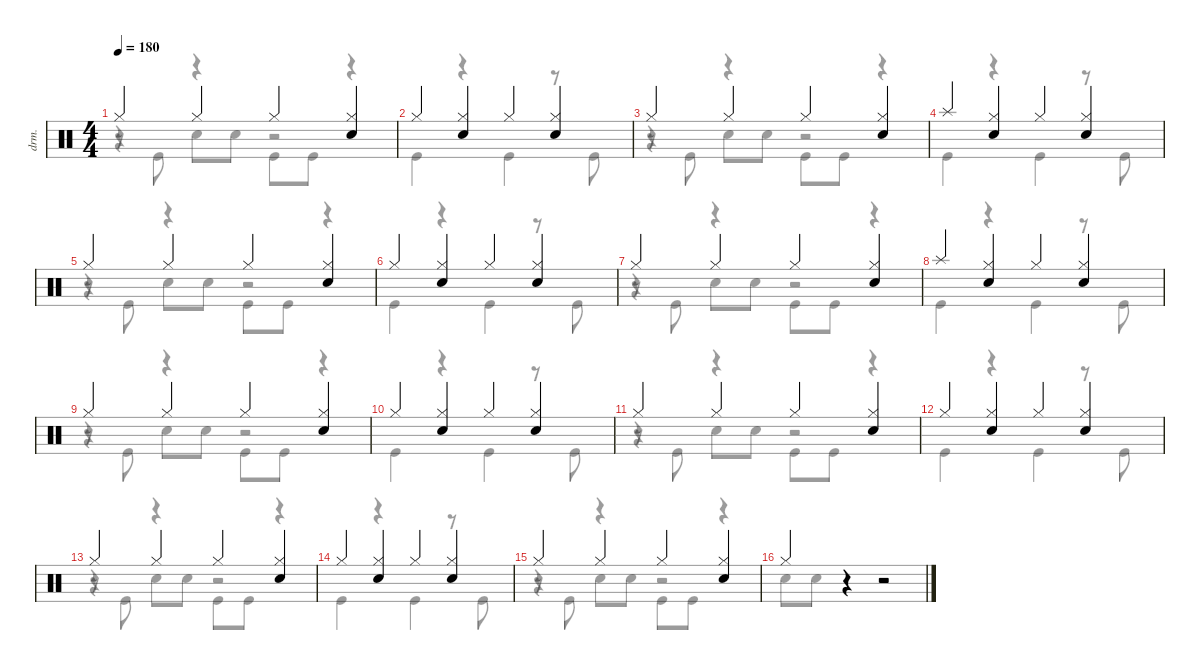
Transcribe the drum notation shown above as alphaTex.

\defaultSystemsLayout 4
\hideDynamics
\bracketExtendMode nobrackets
\otherSystemsTrackNameOrientation horizontal
\track ("Drumkit" "drm.") {instrument percussion}
\staff {score}
\articulation defaults
\voice
\ts (4 4)
\tempo 180
\clef neutral
\ks c "Hi-Hat (closed)".4{dy mf} "Hi-Hat (closed)".4 "Hi-Hat (closed)".4
("Hi-Hat (closed)" "Snare (hit) 2").4 |
"Hi-Hat (closed)".4 ("Hi-Hat (closed)" "Snare (hit) 2").4 "Hi-Hat (closed)".4 ("Hi-Hat (closed)" "Snare (hit) 2").4 |
"Hi-Hat (closed)".4 "Hi-Hat (closed)".4 "Hi-Hat (closed)".4 ("Hi-Hat (closed)" "Snare (hit) 2").4 |
"Splash (hit)".4 ("Hi-Hat (closed)" "Snare (hit) 2").4 "Hi-Hat (closed)".4 ("Hi-Hat (closed)" "Snare (hit) 2").4 |
"Hi-Hat (closed)".4 "Hi-Hat (closed)".4 "Hi-Hat (closed)".4 ("Hi-Hat (closed)" "Snare (hit) 2").4 |
"Hi-Hat (closed)".4 ("Hi-Hat (closed)" "Snare (hit) 2").4 "Hi-Hat (closed)".4 ("Hi-Hat (closed)" "Snare (hit) 2").4 |
"Hi-Hat (closed)".4 "Hi-Hat (closed)".4 "Hi-Hat (closed)".4 ("Hi-Hat (closed)" "Snare (hit) 2").4 |
"Splash (hit)".4 ("Hi-Hat (closed)" "Snare (hit) 2").4 "Hi-Hat (closed)".4 ("Hi-Hat (closed)" "Snare (hit) 2").4 |
"Hi-Hat (closed)".4 "Hi-Hat (closed)".4 "Hi-Hat (closed)".4 ("Hi-Hat (closed)" "Snare (hit) 2").4 |
"Hi-Hat (closed)".4 ("Hi-Hat (closed)" "Snare (hit) 2").4 "Hi-Hat (closed)".4 ("Hi-Hat (closed)" "Snare (hit) 2").4 |
"Hi-Hat (closed)".4 "Hi-Hat (closed)".4 "Hi-Hat (closed)".4 ("Hi-Hat (closed)" "Snare (hit) 2").4 |
"Hi-Hat (closed)".4 ("Hi-Hat (closed)" "Snare (hit) 2").4 "Hi-Hat (closed)".4 ("Hi-Hat (closed)" "Snare (hit) 2").4 |
"Hi-Hat (closed)".4 "Hi-Hat (closed)".4 "Hi-Hat (closed)".4 ("Hi-Hat (closed)" "Snare (hit) 2").4 |
"Hi-Hat (closed)".4 ("Hi-Hat (closed)" "Snare (hit) 2").4 "Hi-Hat (closed)".4 ("Hi-Hat (closed)" "Snare (hit) 2").4 |
"Hi-Hat (closed)".4 "Hi-Hat (closed)".4 "Hi-Hat (closed)".4 ("Hi-Hat (closed)" "Snare (hit) 2").4 |
"Hi-Hat (closed)".4 r.4 r.2
\voice
\clef neutral
\ottava regular
\simile none
\ks c
r.8{dy mf} "Kick (hit)".8 r.4 "Kick (hit)".8 "Kick (hit)".8 r.4 |
"Kick (hit)".4 r.4 "Kick (hit)".4 r.8 "Kick (hit)".8 |
r.8 "Kick (hit)".8 r.4 "Kick (hit)".8 "Kick (hit)".8 r.4 |
"Kick (hit)".4 r.4 "Kick (hit)".4 r.8 "Kick (hit)".8 |
r.8 "Kick (hit)".8 r.4 "Kick (hit)".8 "Kick (hit)".8 r.4 |
"Kick (hit)".4 r.4 "Kick (hit)".4 r.8 "Kick (hit)".8 |
r.8 "Kick (hit)".8 r.4 "Kick (hit)".8 "Kick (hit)".8 r.4 |
"Kick (hit)".4 r.4 "Kick (hit)".4 r.8 "Kick (hit)".8 |
r.8 "Kick (hit)".8 r.4 "Kick (hit)".8 "Kick (hit)".8 r.4 |
"Kick (hit)".4 r.4 "Kick (hit)".4 r.8 "Kick (hit)".8 |
r.8 "Kick (hit)".8 r.4 "Kick (hit)".8 "Kick (hit)".8 r.4 |
"Kick (hit)".4 r.4 "Kick (hit)".4 r.8 "Kick (hit)".8 |
r.8 "Kick (hit)".8 r.4 "Kick (hit)".8 "Kick (hit)".8 r.4 |
"Kick (hit)".4 r.4 "Kick (hit)".4 r.8 "Kick (hit)".8 |
r.8 "Kick (hit)".8 r.4 "Kick (hit)".8 "Kick (hit)".8 r.4 |
\voice
\clef neutral
\ottava regular
\simile none
\ks c
r.4{dy mf} "Snare (hit) 2".8 "Snare (hit) 2".8 r.2 |
|
r.4 "Snare (hit) 2".8 "Snare (hit) 2".8 r.2 |
|
r.4 "Snare (hit) 2".8 "Snare (hit) 2".8 r.2 |
|
r.4 "Snare (hit) 2".8 "Snare (hit) 2".8 r.2 |
|
r.4 "Snare (hit) 2".8 "Snare (hit) 2".8 r.2 |
|
r.4 "Snare (hit) 2".8 "Snare (hit) 2".8 r.2 |
|
r.4 "Snare (hit) 2".8 "Snare (hit) 2".8 r.2 |
|
r.4 "Snare (hit) 2".8 "Snare (hit) 2".8 r.2 |
"Snare (hit) 2".8 "Snare (hit) 2".8 r.4 r.2
